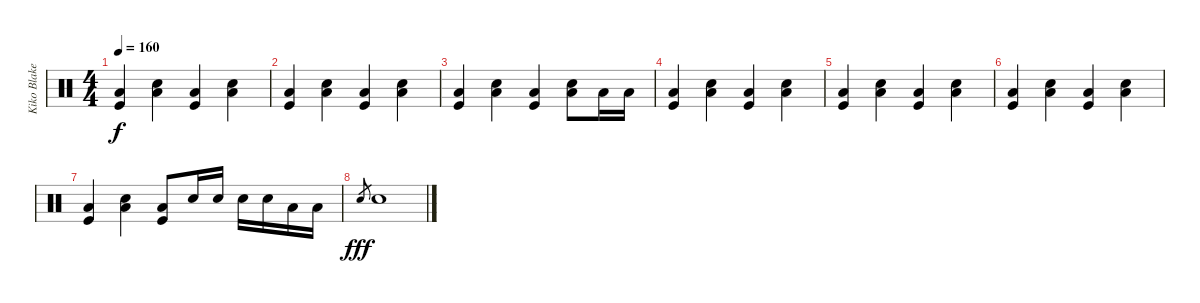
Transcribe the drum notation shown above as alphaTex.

\track ("Kiko Blake" "Kiko Blake") {instrument percussion}
\staff {score}
\articulation defaults
\ts (4 4)
\tempo 160
\clef neutral
\ks c
("Low Floor Tom (hit)" "Kick (hit)").4{dy f} ("Low Floor Tom (hit)" "Snare (hit) 2").4 ("Low Floor Tom (hit)" "Kick (hit)").4 ("Low Floor Tom (hit)" "Snare (hit) 2").4 |
("Low Floor Tom (hit)" "Kick (hit)").4 ("Low Floor Tom (hit)" "Snare (hit) 2").4 ("Low Floor Tom (hit)" "Kick (hit)").4 ("Low Floor Tom (hit)" "Snare (hit) 2").4 |
("Low Floor Tom (hit)" "Kick (hit)").4 ("Low Floor Tom (hit)" "Snare (hit) 2").4 ("Low Floor Tom (hit)" "Kick (hit)").4 ("Low Floor Tom (hit)" "Snare (hit) 2").8 "Low Floor Tom (hit)".16 "Low Floor Tom (hit)".16 |
("Low Floor Tom (hit)" "Kick (hit)").4 ("Low Floor Tom (hit)" "Snare (hit) 2").4 ("Low Floor Tom (hit)" "Kick (hit)").4 ("Low Floor Tom (hit)" "Snare (hit) 2").4 |
("Low Floor Tom (hit)" "Kick (hit)").4 ("Low Floor Tom (hit)" "Snare (hit) 2").4 ("Low Floor Tom (hit)" "Kick (hit)").4 ("Low Floor Tom (hit)" "Snare (hit) 2").4 |
("Low Floor Tom (hit)" "Kick (hit)").4 ("Low Floor Tom (hit)" "Snare (hit) 2").4 ("Low Floor Tom (hit)" "Kick (hit)").4 ("Low Floor Tom (hit)" "Snare (hit) 2").4 |
("Low Floor Tom (hit)" "Kick (hit)").4 ("Low Floor Tom (hit)" "Snare (hit) 2").4 ("Low Floor Tom (hit)" "Kick (hit)").8 "Snare (hit) 2".16 "Snare (hit) 2".16 "Snare (hit) 2".16 "Snare (hit) 2".16 "Low Tom (hit)".16 "Low Tom (hit)".16 |
"Snare (hit) 2".8{gr dy fff} "Snare (hit) 2".1
